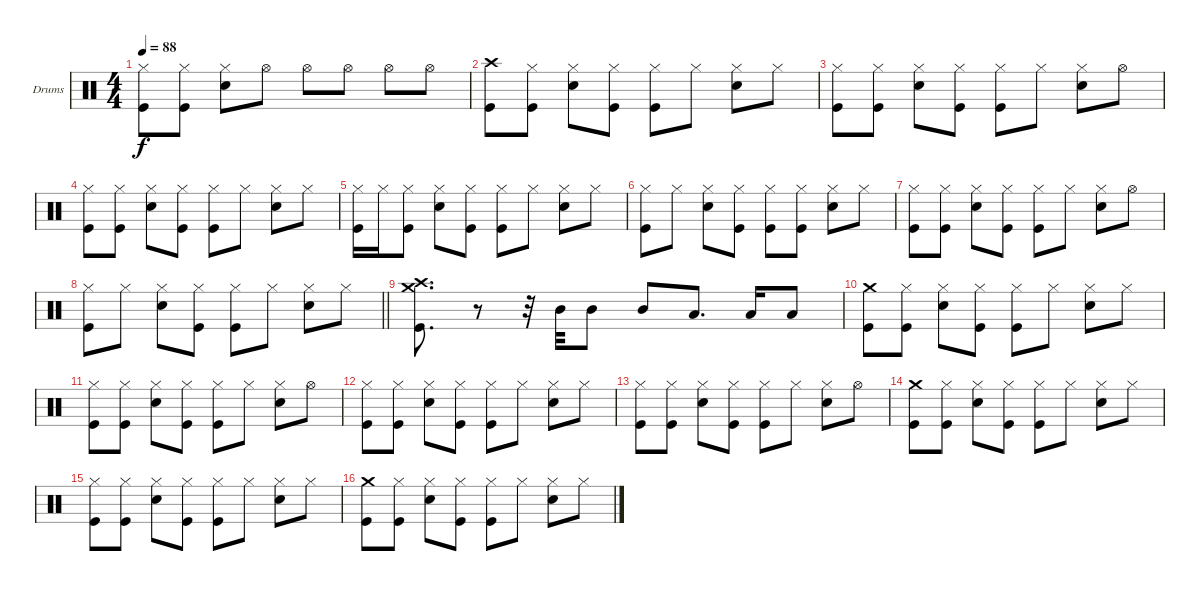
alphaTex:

\bracketExtendMode groupsimilarinstruments
\firstSystemTrackNameOrientation horizontal
\otherSystemsTrackNameOrientation horizontal
\track ("Drumkit" "Drums") {instrument percussion}
\staff {score}
\articulation defaults
\ts (4 4)
\tempo 88
\clef neutral
\ks c
("Kick (hit)" "Hi-Hat (closed)").8{dy f} ("Kick (hit)" "Hi-Hat (closed)").8 ("Snare (hit) 2" "Hi-Hat (closed)").8 "Hi-Hat (open)".8 "Hi-Hat (open)".8 "Hi-Hat (open)".8 "Hi-Hat (open)".8 "Hi-Hat (open)".8 |
("Kick (hit)" "Crash high (hit)").8 ("Kick (hit)" "Hi-Hat (closed)").8 ("Snare (hit) 2" "Hi-Hat (closed)").8 ("Kick (hit)" "Hi-Hat (closed)").8 ("Kick (hit)" "Hi-Hat (closed)").8 "Hi-Hat (closed)".8 ("Snare (hit) 2" "Hi-Hat (closed)").8 "Hi-Hat (closed)".8 |
("Kick (hit)" "Hi-Hat (closed)").8 ("Kick (hit)" "Hi-Hat (closed)").8 ("Snare (hit) 2" "Hi-Hat (closed)").8 ("Kick (hit)" "Hi-Hat (closed)").8 ("Kick (hit)" "Hi-Hat (closed)").8 "Hi-Hat (closed)".8 ("Snare (hit) 2" "Hi-Hat (closed)").8 "Hi-Hat (open)".8 |
("Kick (hit)" "Hi-Hat (closed)").8 ("Kick (hit)" "Hi-Hat (closed)").8 ("Snare (hit) 2" "Hi-Hat (closed)").8 ("Kick (hit)" "Hi-Hat (closed)").8 ("Kick (hit)" "Hi-Hat (closed)").8 "Hi-Hat (closed)".8 ("Snare (hit) 2" "Hi-Hat (closed)").8 "Hi-Hat (closed)".8 |
("Kick (hit)" "Hi-Hat (closed)").16 "Hi-Hat (closed)".16 ("Kick (hit)" "Hi-Hat (closed)").8 ("Snare (hit) 2" "Hi-Hat (closed)").8 ("Kick (hit)" "Hi-Hat (closed)").8 ("Kick (hit)" "Hi-Hat (closed)").8 "Hi-Hat (closed)".8 ("Snare (hit) 2" "Hi-Hat (closed)").8 "Hi-Hat (closed)".8 |
("Kick (hit)" "Hi-Hat (closed)").8 "Hi-Hat (closed)".8 ("Snare (hit) 2" "Hi-Hat (closed)").8 ("Kick (hit)" "Hi-Hat (closed)").8 ("Kick (hit)" "Hi-Hat (closed)").8 ("Kick (hit)" "Hi-Hat (closed)").8 ("Snare (hit) 2" "Hi-Hat (closed)").8 "Hi-Hat (closed)".8 |
("Kick (hit)" "Hi-Hat (closed)").8 ("Kick (hit)" "Hi-Hat (closed)").8 ("Snare (hit) 2" "Hi-Hat (closed)").8 ("Kick (hit)" "Hi-Hat (closed)").8 ("Kick (hit)" "Hi-Hat (closed)").8 "Hi-Hat (closed)".8 ("Snare (hit) 2" "Hi-Hat (closed)").8 "Hi-Hat (open)".8 |
\barLineRight lightlight
("Kick (hit)" "Hi-Hat (closed)").8 "Hi-Hat (closed)".8 ("Snare (hit) 2" "Hi-Hat (closed)").8 ("Kick (hit)" "Hi-Hat (closed)").8 ("Kick (hit)" "Hi-Hat (closed)").8 "Hi-Hat (closed)".8 ("Snare (hit) 2" "Hi-Hat (closed)").8 "Hi-Hat (closed)".8 |
("Kick (hit)" "Crash high (hit)" "Crash medium (hit)").8{d} r.8 r.32 "Mid Tom (hit)".32 "Mid Tom (hit)".8 "Mid Tom (hit)".8 "Low Tom (hit)".8{d} "Low Tom (hit)".16 "Low Tom (hit)".8 |
("Kick (hit)" "Crash medium (hit)").8 ("Kick (hit)" "Hi-Hat (closed)").8 ("Snare (hit) 2" "Hi-Hat (closed)").8 ("Kick (hit)" "Hi-Hat (closed)").8 ("Kick (hit)" "Hi-Hat (closed)").8 "Hi-Hat (closed)".8 ("Snare (hit) 2" "Hi-Hat (closed)").8 "Hi-Hat (closed)".8 |
("Kick (hit)" "Hi-Hat (closed)").8 ("Kick (hit)" "Hi-Hat (closed)").8 ("Snare (hit) 2" "Hi-Hat (closed)").8 ("Kick (hit)" "Hi-Hat (closed)").8 ("Kick (hit)" "Hi-Hat (closed)").8 "Hi-Hat (closed)".8 ("Snare (hit) 2" "Hi-Hat (closed)").8 "Hi-Hat (open)".8 |
("Kick (hit)" "Hi-Hat (closed)").8 ("Kick (hit)" "Hi-Hat (closed)").8 ("Snare (hit) 2" "Hi-Hat (closed)").8 ("Kick (hit)" "Hi-Hat (closed)").8 ("Kick (hit)" "Hi-Hat (closed)").8 "Hi-Hat (closed)".8 ("Snare (hit) 2" "Hi-Hat (closed)").8 "Hi-Hat (closed)".8 |
("Kick (hit)" "Hi-Hat (closed)").8 ("Kick (hit)" "Hi-Hat (closed)").8 ("Snare (hit) 2" "Hi-Hat (closed)").8 ("Kick (hit)" "Hi-Hat (closed)").8 ("Kick (hit)" "Hi-Hat (closed)").8 "Hi-Hat (closed)".8 ("Snare (hit) 2" "Hi-Hat (closed)").8 "Hi-Hat (open)".8 |
("Kick (hit)" "Crash medium (hit)").8 ("Kick (hit)" "Hi-Hat (closed)").8 ("Snare (hit) 2" "Hi-Hat (closed)").8 ("Kick (hit)" "Hi-Hat (closed)").8 ("Kick (hit)" "Hi-Hat (closed)").8 "Hi-Hat (closed)".8 ("Snare (hit) 2" "Hi-Hat (closed)").8 "Hi-Hat (closed)".8 |
("Kick (hit)" "Hi-Hat (closed)").8 ("Kick (hit)" "Hi-Hat (closed)").8 ("Snare (hit) 2" "Hi-Hat (closed)").8 ("Kick (hit)" "Hi-Hat (closed)").8 ("Kick (hit)" "Hi-Hat (closed)").8 "Hi-Hat (closed)".8 ("Snare (hit) 2" "Hi-Hat (closed)").8 "Hi-Hat (closed)".8 |
("Kick (hit)" "Crash medium (hit)").8 ("Kick (hit)" "Hi-Hat (closed)").8 ("Snare (hit) 2" "Hi-Hat (closed)").8 ("Kick (hit)" "Hi-Hat (closed)").8 ("Kick (hit)" "Hi-Hat (closed)").8 "Hi-Hat (closed)".8 ("Snare (hit) 2" "Hi-Hat (closed)").8 "Hi-Hat (closed)".8
